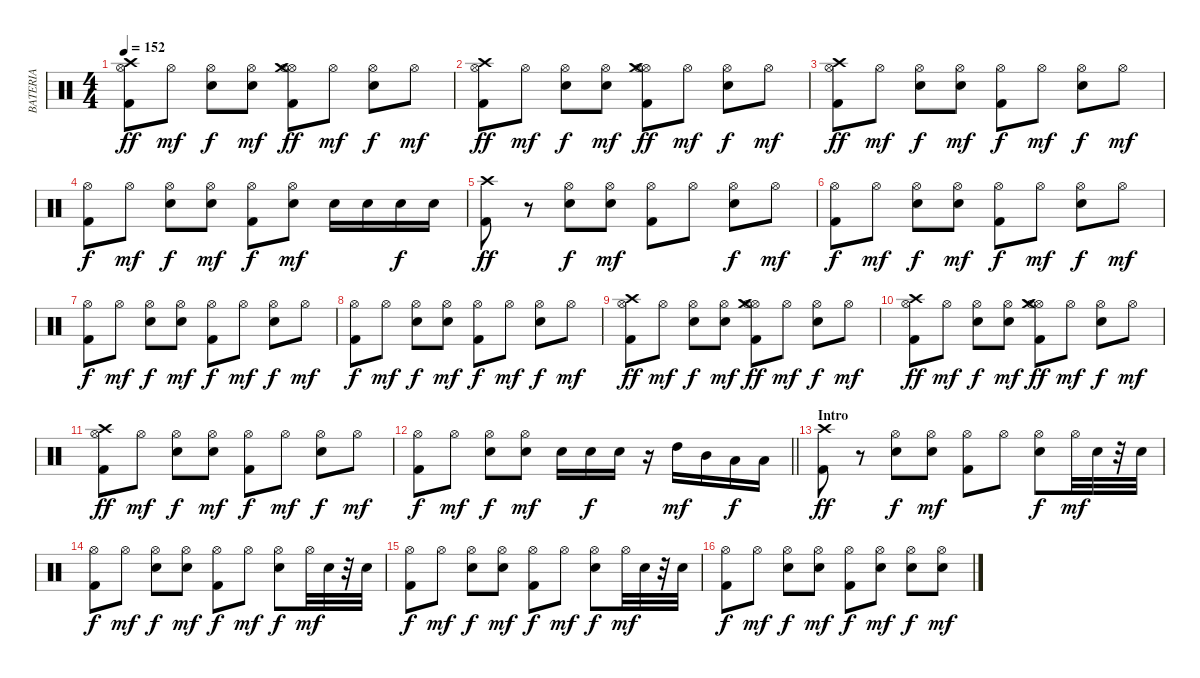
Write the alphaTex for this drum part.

\track ("BATERIA" "BATERIA") {instrument percussion}
\staff {score}
\articulation defaults
\ts (4 4)
\tempo 152
\clef neutral
\ks c
("Kick (hit) 2" "Hi-Hat (open)" "Crash high (hit)").8{dy ff} "Hi-Hat (open)".8{dy mf} ("Snare (hit) 2" "Hi-Hat (open)").8{dy f} ("Snare (hit) 2" "Hi-Hat (open)").8{dy mf} ("Kick (hit) 2" "Hi-Hat (open)" "Hi-Hat (open)" "Crash medium (hit)").8{dy ff} "Hi-Hat (open)".8{dy mf} ("Snare (hit) 2" "Hi-Hat (open)").8{dy f} "Hi-Hat (open)".8{dy mf} |
("Kick (hit) 2" "Crash high (hit)" "Hi-Hat (open)").8{dy ff} "Hi-Hat (open)".8{dy mf} ("Snare (hit) 2" "Hi-Hat (open)").8{dy f} ("Snare (hit) 2" "Hi-Hat (open)").8{dy mf} ("Kick (hit) 2" "Hi-Hat (open)" "Hi-Hat (open)" "Crash medium (hit)").8{dy ff} "Hi-Hat (open)".8{dy mf} ("Snare (hit) 2" "Hi-Hat (open)").8{dy f} "Hi-Hat (open)".8{dy mf} |
("Kick (hit) 2" "Crash high (hit)" "Hi-Hat (open)").8{dy ff} "Hi-Hat (open)".8{dy mf} ("Snare (hit) 2" "Hi-Hat (open)").8{dy f} ("Snare (hit) 2" "Hi-Hat (open)").8{dy mf} ("Kick (hit) 2" "Hi-Hat (open)").8{dy f} "Hi-Hat (open)".8{dy mf} ("Snare (hit) 2" "Hi-Hat (open)").8{dy f} "Hi-Hat (open)".8{dy mf} |
("Hi-Hat (open)" "Kick (hit) 2").8{dy f} "Hi-Hat (open)".8{dy mf} ("Snare (hit) 2" "Hi-Hat (open)").8{dy f} ("Snare (hit) 2" "Hi-Hat (open)").8{dy mf} ("Kick (hit) 2" "Hi-Hat (open)").8{dy f} ("Snare (hit) 2" "Hi-Hat (open)").8{dy mf} "Snare (hit) 2".16 "Snare (hit) 2".16 "Snare (hit) 2".16{dy f} "Snare (hit) 2".16 |
("Kick (hit) 2" "Crash high (hit)").8{dy ff} r.8 ("Snare (hit) 2" "Hi-Hat (open)").8{dy f} ("Snare (hit) 2" "Hi-Hat (open)").8{dy mf} ("Kick (hit) 2" "Hi-Hat (open)").8 "Hi-Hat (open)".8 ("Snare (hit) 2" "Hi-Hat (open)").8{dy f} "Hi-Hat (open)".8{dy mf} |
("Hi-Hat (open)" "Kick (hit) 2").8{dy f} "Hi-Hat (open)".8{dy mf} ("Hi-Hat (open)" "Snare (hit) 2").8{dy f} ("Hi-Hat (open)" "Snare (hit) 2").8{dy mf} ("Hi-Hat (open)" "Kick (hit) 2").8{dy f} "Hi-Hat (open)".8{dy mf} ("Hi-Hat (open)" "Snare (hit) 2").8{dy f} "Hi-Hat (open)".8{dy mf} |
("Hi-Hat (open)" "Kick (hit) 2").8{dy f} "Hi-Hat (open)".8{dy mf} ("Hi-Hat (open)" "Snare (hit) 2").8{dy f} ("Hi-Hat (open)" "Snare (hit) 2").8{dy mf} ("Hi-Hat (open)" "Kick (hit) 2").8{dy f} "Hi-Hat (open)".8{dy mf} ("Hi-Hat (open)" "Snare (hit) 2").8{dy f} "Hi-Hat (open)".8{dy mf} |
("Hi-Hat (open)" "Kick (hit) 2").8{dy f} "Hi-Hat (open)".8{dy mf} ("Snare (hit) 2" "Hi-Hat (open)").8{dy f} ("Snare (hit) 2" "Hi-Hat (open)").8{dy mf} ("Hi-Hat (open)" "Kick (hit) 2").8{dy f} "Hi-Hat (open)".8{dy mf} ("Hi-Hat (open)" "Snare (hit) 2").8{dy f} "Hi-Hat (open)".8{dy mf} |
("Kick (hit) 2" "Crash high (hit)" "Hi-Hat (open)").8{dy ff} "Hi-Hat (open)".8{dy mf} ("Snare (hit) 2" "Hi-Hat (open)").8{dy f} ("Snare (hit) 2" "Hi-Hat (open)").8{dy mf} ("Kick (hit) 2" "Hi-Hat (open)" "Hi-Hat (open)" "Crash medium (hit)").8{dy ff} "Hi-Hat (open)".8{dy mf} ("Snare (hit) 2" "Hi-Hat (open)").8{dy f} "Hi-Hat (open)".8{dy mf} |
("Kick (hit) 2" "Crash high (hit)" "Hi-Hat (open)").8{dy ff} "Hi-Hat (open)".8{dy mf} ("Snare (hit) 2" "Hi-Hat (open)").8{dy f} ("Snare (hit) 2" "Hi-Hat (open)").8{dy mf} ("Kick (hit) 2" "Hi-Hat (open)" "Hi-Hat (open)" "Crash medium (hit)").8{dy ff} "Hi-Hat (open)".8{dy mf} ("Snare (hit) 2" "Hi-Hat (open)").8{dy f} "Hi-Hat (open)".8{dy mf} |
("Kick (hit) 2" "Crash high (hit)" "Hi-Hat (open)").8{dy ff} "Hi-Hat (open)".8{dy mf} ("Snare (hit) 2" "Hi-Hat (open)").8{dy f} ("Snare (hit) 2" "Hi-Hat (open)").8{dy mf} ("Kick (hit) 2" "Hi-Hat (open)").8{dy f} "Hi-Hat (open)".8{dy mf} ("Snare (hit) 2" "Hi-Hat (open)").8{dy f} "Hi-Hat (open)".8{dy mf} |
\barLineRight lightlight
("Hi-Hat (open)" "Kick (hit) 2").8{dy f} "Hi-Hat (open)".8{dy mf} ("Snare (hit) 2" "Hi-Hat (open)").8{dy f} ("Snare (hit) 2" "Hi-Hat (open)").8{dy mf} "Snare (hit) 2".16 "Snare (hit) 2".16{dy f} "Snare (hit) 2".16 r.16 "High Tom (hit)".16{dy mf} "Mid Tom (hit)".16 "Low Tom (hit)".16{dy f} "Low Tom (hit)".16 |
\section ("" "Intro")
("Kick (hit) 2" "Crash high (hit)").8{dy ff} r.8 ("Snare (hit) 2" "Hi-Hat (open)").8{dy f} ("Snare (hit) 2" "Hi-Hat (open)").8{dy mf} ("Kick (hit) 2" "Hi-Hat (open)").8 "Hi-Hat (open)".8 ("Snare (hit) 2" "Hi-Hat (open)").8{dy f} "Hi-Hat (open)".32{dy mf} "Snare (hit) 2".32 r.32 "Snare (hit) 2".32 |
("Hi-Hat (open)" "Kick (hit) 2").8{dy f} "Hi-Hat (open)".8{dy mf} ("Hi-Hat (open)" "Snare (hit) 2").8{dy f} ("Hi-Hat (open)" "Snare (hit) 2").8{dy mf} ("Hi-Hat (open)" "Kick (hit) 2").8{dy f} "Hi-Hat (open)".8{dy mf} ("Hi-Hat (open)" "Snare (hit) 2").8{dy f} "Hi-Hat (open)".32{dy mf} "Snare (hit) 2".32 r.32 "Snare (hit) 2".32 |
("Hi-Hat (open)" "Kick (hit) 2").8{dy f} "Hi-Hat (open)".8{dy mf} ("Hi-Hat (open)" "Snare (hit) 2").8{dy f} ("Hi-Hat (open)" "Snare (hit) 2").8{dy mf} ("Hi-Hat (open)" "Kick (hit) 2").8{dy f} "Hi-Hat (open)".8{dy mf} ("Hi-Hat (open)" "Snare (hit) 2").8{dy f} "Hi-Hat (open)".32{dy mf} "Snare (hit) 2".32 r.32 "Snare (hit) 2".32 |
("Hi-Hat (open)" "Kick (hit) 2").8{dy f} "Hi-Hat (open)".8{dy mf} ("Snare (hit) 2" "Hi-Hat (open)").8{dy f} ("Snare (hit) 2" "Hi-Hat (open)").8{dy mf} ("Hi-Hat (open)" "Kick (hit) 2").8{dy f} ("Hi-Hat (open)" "Snare (hit) 2").8{dy mf} ("Hi-Hat (open)" "Snare (hit) 2").8{dy f} ("Hi-Hat (open)" "Snare (hit) 2").8{dy mf}
